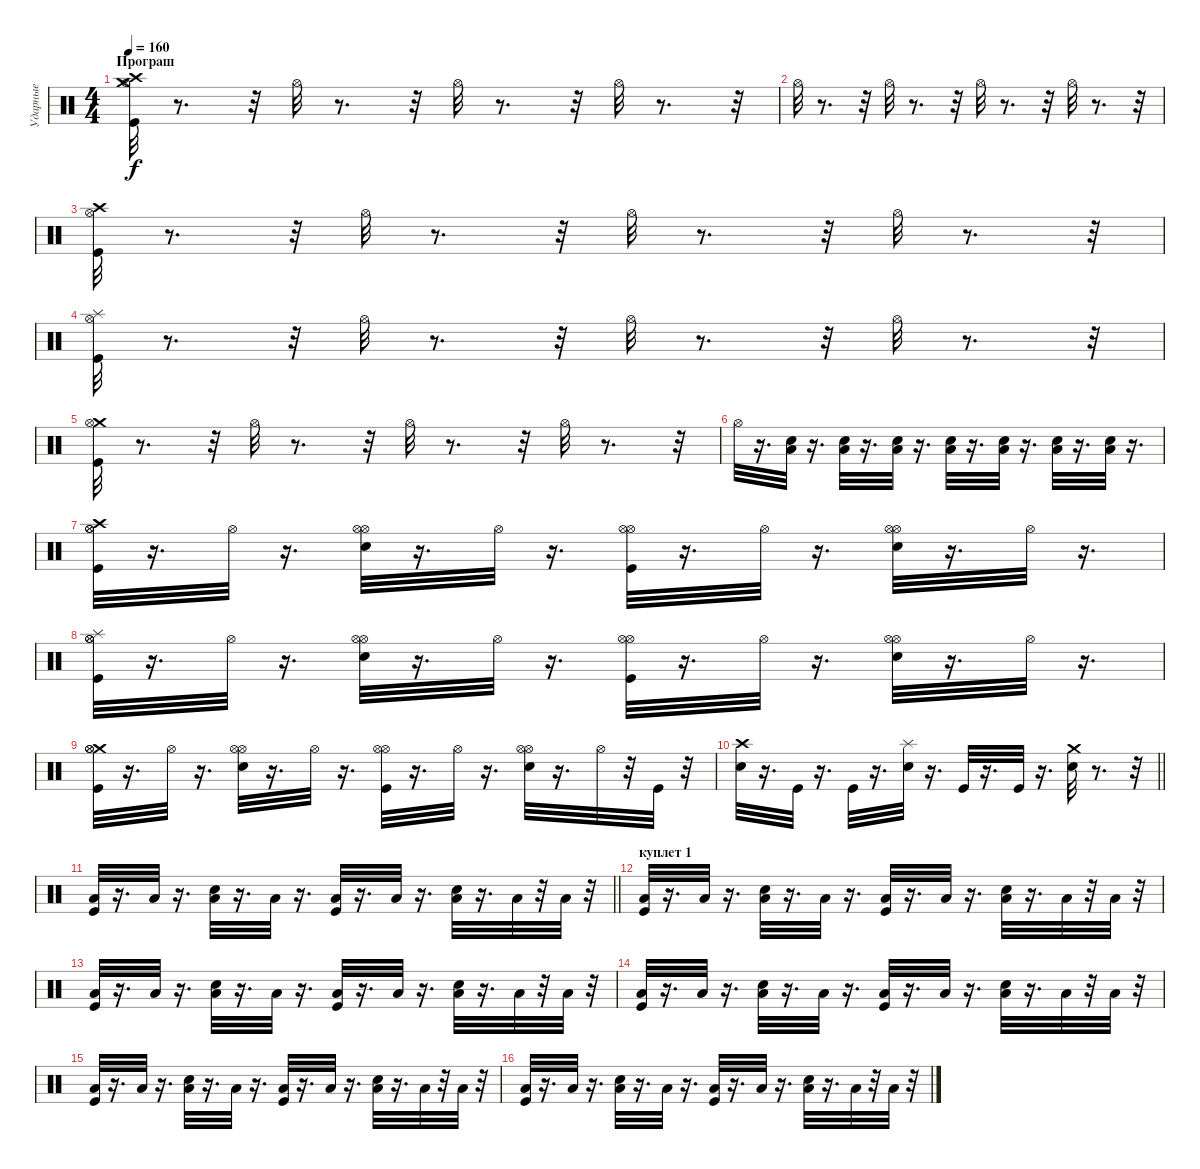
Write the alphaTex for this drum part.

\track ("Ударные" "Ударные") {instrument percussion}
\staff {score}
\articulation defaults
\ts (4 4)
\section ("" "Програш")
\tempo 160
\clef neutral
\ks c
("Hi-Hat (open)" "Crash medium (hit)" "Crash high (hit)" "Kick (hit)").32{dy f} r.8{d} r.32 "Hi-Hat (open)".32 r.8{d} r.32 "Hi-Hat (open)".32 r.8{d} r.32 "Hi-Hat (open)".32 r.8{d} r.32 |
"Hi-Hat (open)".32 r.8{d} r.32 "Hi-Hat (open)".32 r.8{d} r.32 "Hi-Hat (open)".32 r.8{d} r.32 "Hi-Hat (open)".32 r.8{d} r.32 |
("Kick (hit)" "Crash high (hit)" "Hi-Hat (open)").32 r.8{d} r.32 "Hi-Hat (open)".32 r.8{d} r.32 "Hi-Hat (open)".32 r.8{d} r.32 "Hi-Hat (open)".32 r.8{d} r.32 |
("Kick (hit)" "Splash (hit)" "Hi-Hat (open)").32 r.8{d} r.32 "Hi-Hat (open)".32 r.8{d} r.32 "Hi-Hat (open)".32 r.8{d} r.32 "Hi-Hat (open)".32 r.8{d} r.32 |
("Kick (hit)" "Crash medium (hit)" "Hi-Hat (open)").32 r.8{d} r.32 "Hi-Hat (open)".32 r.8{d} r.32 "Hi-Hat (open)".32 r.8{d} r.32 "Hi-Hat (open)".32 r.8{d} r.32 |
"Hi-Hat (open)".32 r.16{d} ("Snare (hit) 2" "Low Floor Tom (hit)").32 r.16{d} ("Snare (hit) 2" "Low Floor Tom (hit)").32 r.16{d} ("Low Floor Tom (hit)" "Snare (hit) 2").32 r.16{d} ("Snare (hit) 2" "Low Floor Tom (hit)").32 r.16{d} ("Snare (hit) 2" "Low Floor Tom (hit)").32 r.16{d} ("Low Floor Tom (hit)" "Snare (hit) 2").32 r.16{d} ("Snare (hit) 2" "Low Floor Tom (hit)").32 r.16{d} |
("Kick (hit)" "Crash high (hit)" "Hi-Hat (open)" "Hi-Hat (open)").32 r.16{d} "Hi-Hat (open)".32 r.16{d} ("Snare (hit) 2" "Hi-Hat (open)" "Hi-Hat (open)").32 r.16{d} "Hi-Hat (open)".32 r.16{d} ("Kick (hit)" "Hi-Hat (open)" "Hi-Hat (open)").32 r.16{d} "Hi-Hat (open)".32 r.16{d} ("Snare (hit) 2" "Hi-Hat (open)" "Hi-Hat (open)").32 r.16{d} "Hi-Hat (open)".32 r.16{d} |
("Kick (hit)" "Splash (hit)" "Hi-Hat (open)" "Hi-Hat (open)").32 r.16{d} "Hi-Hat (open)".32 r.16{d} ("Snare (hit) 2" "Hi-Hat (open)" "Hi-Hat (open)").32 r.16{d} "Hi-Hat (open)".32 r.16{d} ("Kick (hit)" "Hi-Hat (open)" "Hi-Hat (open)").32 r.16{d} "Hi-Hat (open)".32 r.16{d} ("Snare (hit) 2" "Hi-Hat (open)" "Hi-Hat (open)").32 r.16{d} "Hi-Hat (open)".32 r.16{d} |
("Kick (hit)" "Crash medium (hit)" "Hi-Hat (open)" "Hi-Hat (open)").32 r.16{d} "Hi-Hat (open)".32 r.16{d} ("Snare (hit) 2" "Hi-Hat (open)" "Hi-Hat (open)").32 r.16{d} "Hi-Hat (open)".32 r.16{d} ("Kick (hit)" "Hi-Hat (open)" "Hi-Hat (open)").32 r.16{d} "Hi-Hat (open)".32 r.16{d} ("Snare (hit) 2" "Hi-Hat (open)" "Hi-Hat (open)").32 r.16{d} "Hi-Hat (open)".32 r.32 "Kick (hit)".32 r.32 |
\barLineRight lightlight
("Crash high (hit)" "Snare (hit) 2").32 r.16{d} "Kick (hit)".32 r.16{d} "Kick (hit)".32 r.16{d} ("Splash (hit)" "Snare (hit) 2").32 r.16{d} "Kick (hit)".32 r.16{d} "Kick (hit)".32 r.16{d} ("Crash medium (hit)" "Snare (hit) 2").32 r.8{d} r.32 |
\barLineRight lightlight
("Kick (hit)" "Low Floor Tom (hit)").32 r.16{d} "Low Floor Tom (hit)".32 r.16{d} ("Low Floor Tom (hit)" "Snare (hit) 2").32 r.16{d} "Low Floor Tom (hit)".32 r.16{d} ("Kick (hit)" "Low Floor Tom (hit)").32 r.16{d} "Low Floor Tom (hit)".32 r.16{d} ("Low Floor Tom (hit)" "Snare (hit) 2").32 r.16{d} "Low Floor Tom (hit)".32 r.32 "Low Floor Tom (hit)".32 r.32 |
\section ("" "куплет 1")
("Kick (hit)" "Low Floor Tom (hit)").32 r.16{d} "Low Floor Tom (hit)".32 r.16{d} ("Low Floor Tom (hit)" "Snare (hit) 2").32 r.16{d} "Low Floor Tom (hit)".32 r.16{d} ("Low Floor Tom (hit)" "Kick (hit)").32 r.16{d} "Low Floor Tom (hit)".32 r.16{d} ("Snare (hit) 2" "Low Floor Tom (hit)").32 r.16{d} "Low Floor Tom (hit)".32 r.32 "Low Floor Tom (hit)".32 r.32 |
("Kick (hit)" "Low Floor Tom (hit)").32 r.16{d} "Low Floor Tom (hit)".32 r.16{d} ("Low Floor Tom (hit)" "Snare (hit) 2").32 r.16{d} "Low Floor Tom (hit)".32 r.16{d} ("Kick (hit)" "Low Floor Tom (hit)").32 r.16{d} "Low Floor Tom (hit)".32 r.16{d} ("Low Floor Tom (hit)" "Snare (hit) 2").32 r.16{d} "Low Floor Tom (hit)".32 r.32 "Low Floor Tom (hit)".32 r.32 |
("Kick (hit)" "Low Floor Tom (hit)").32 r.16{d} "Low Floor Tom (hit)".32 r.16{d} ("Low Floor Tom (hit)" "Snare (hit) 2").32 r.16{d} "Low Floor Tom (hit)".32 r.16{d} ("Low Floor Tom (hit)" "Kick (hit)").32 r.16{d} "Low Floor Tom (hit)".32 r.16{d} ("Snare (hit) 2" "Low Floor Tom (hit)").32 r.16{d} "Low Floor Tom (hit)".32 r.32 "Low Floor Tom (hit)".32 r.32 |
("Kick (hit)" "Low Floor Tom (hit)").32 r.16{d} "Low Floor Tom (hit)".32 r.16{d} ("Low Floor Tom (hit)" "Snare (hit) 2").32 r.16{d} "Low Floor Tom (hit)".32 r.16{d} ("Kick (hit)" "Low Floor Tom (hit)").32 r.16{d} "Low Floor Tom (hit)".32 r.16{d} ("Low Floor Tom (hit)" "Snare (hit) 2").32 r.16{d} "Low Floor Tom (hit)".32 r.32 "Low Floor Tom (hit)".32 r.32 |
("Kick (hit)" "Low Floor Tom (hit)").32 r.16{d} "Low Floor Tom (hit)".32 r.16{d} ("Low Floor Tom (hit)" "Snare (hit) 2").32 r.16{d} "Low Floor Tom (hit)".32 r.16{d} ("Low Floor Tom (hit)" "Kick (hit)").32 r.16{d} "Low Floor Tom (hit)".32 r.16{d} ("Snare (hit) 2" "Low Floor Tom (hit)").32 r.16{d} "Low Floor Tom (hit)".32 r.32 "Low Floor Tom (hit)".32 r.32
